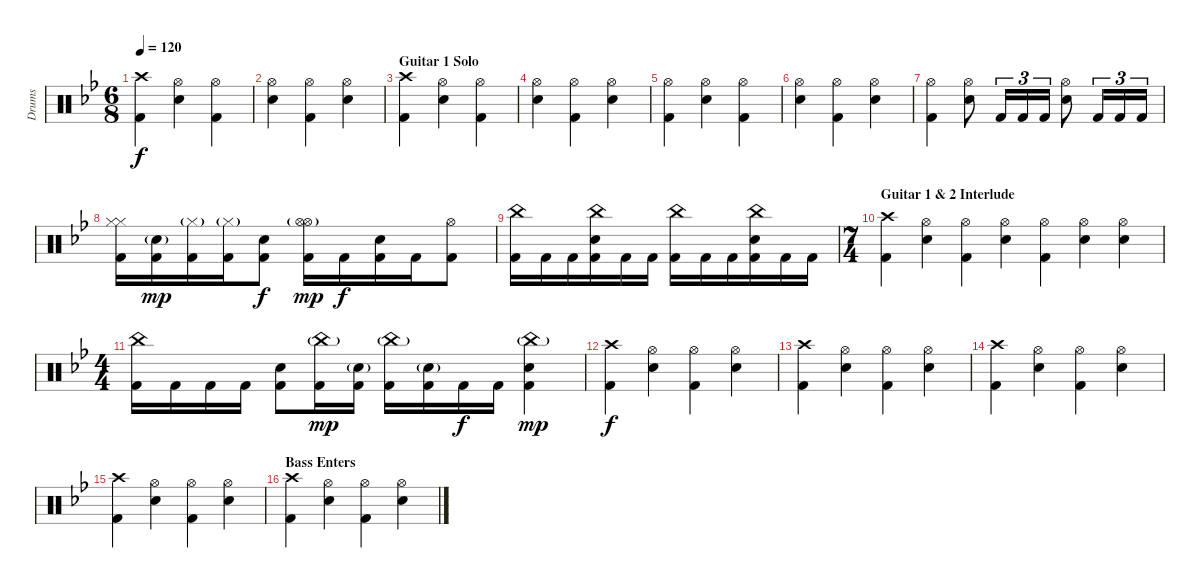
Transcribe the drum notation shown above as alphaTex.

\track ("Drums" "Drums") {instrument percussion}
\staff {score}
\articulation defaults
\ts (6 8)
\tempo 120
\clef neutral
\ks gminor
("Crash high (hit)" "Kick (hit) 2").4{dy f} ("Hi-Hat (open)" "Snare (hit) 2").4 ("Hi-Hat (open)" "Kick (hit) 2").4 |
("Hi-Hat (open)" "Snare (hit) 2").4 ("Hi-Hat (open)" "Kick (hit) 2").4 ("Hi-Hat (open)" "Snare (hit) 2").4 |
\section ("" "Guitar 1 Solo")
("Crash high (hit)" "Kick (hit) 2").4 ("Hi-Hat (open)" "Snare (hit) 2").4 ("Hi-Hat (open)" "Kick (hit) 2").4 |
("Hi-Hat (open)" "Snare (hit) 2").4 ("Hi-Hat (open)" "Kick (hit) 2").4 ("Hi-Hat (open)" "Snare (hit) 2").4 |
("Hi-Hat (open)" "Kick (hit) 2").4 ("Hi-Hat (open)" "Snare (hit) 2").4 ("Hi-Hat (open)" "Kick (hit) 2").4 |
("Hi-Hat (open)" "Snare (hit) 2").4 ("Hi-Hat (open)" "Kick (hit) 2").4 ("Hi-Hat (open)" "Snare (hit) 2").4 |
("Hi-Hat (open)" "Kick (hit) 2").4 ("Hi-Hat (open)" "Snare (hit) 2").8 "Kick (hit) 2".16{tu (3 2)} "Kick (hit) 2".16{tu (3 2)} "Kick (hit) 2".16{tu (3 2)} ("Hi-Hat (open)" "Snare (hit) 2").8 "Kick (hit) 2".16{tu (3 2)} "Kick (hit) 2".16{tu (3 2)} "Kick (hit) 2".16{tu (3 2)} |
("Hi-Hat (closed)" "Hi-Hat (closed)" "Kick (hit) 2").16 ("Snare (hit) 2"{g} "Kick (hit) 2").16{dy mp} ("Hi-Hat (closed)"{g} "Kick (hit) 2").16 ("Hi-Hat (closed)"{g} "Kick (hit) 2").16 ("Snare (hit) 2" "Kick (hit) 2").8{dy f} ("Hi-Hat (open)" "Hi-Hat (open)"{g} "Kick (hit) 2").16{dy mp} "Kick (hit) 2".16{dy f} ("Snare (hit) 2" "Kick (hit) 2").16 "Kick (hit) 2".16 ("Hi-Hat (open)" "Kick (hit) 2").8 |
("China (hit)" "Kick (hit) 2").16 "Kick (hit) 2".16 "Kick (hit) 2".16 ("China (hit)" "Snare (hit) 2" "Kick (hit) 2").16 "Kick (hit) 2".16 "Kick (hit) 2".16 ("China (hit)" "Kick (hit) 2").16 "Kick (hit) 2".16 "Kick (hit) 2".16 ("China (hit)" "Snare (hit) 2" "Kick (hit) 2").16 "Kick (hit) 2".16 "Kick (hit) 2".16 |
\ts (7 4)
\section ("" "Guitar 1 & 2 Interlude")
("Crash high (hit)" "Kick (hit) 2").4 ("Hi-Hat (open)" "Snare (hit) 2").4 ("Hi-Hat (open)" "Kick (hit) 2").4 ("Hi-Hat (open)" "Snare (hit) 2").4 ("Hi-Hat (open)" "Kick (hit) 2").4 ("Hi-Hat (open)" "Snare (hit) 2").4 ("Hi-Hat (open)" "Snare (hit) 2").4 |
\ts (4 4)
("China (hit)" "Kick (hit) 2").16 "Kick (hit) 2".16 "Kick (hit) 2".16 "Kick (hit) 2".16 ("Snare (hit) 2" "Kick (hit) 2").8 ("China (hit)"{g} "Kick (hit) 2").16{dy mp} ("Snare (hit) 2"{g} "Kick (hit) 2").16 ("China (hit)"{g} "Kick (hit) 2").16 ("Snare (hit) 2"{g} "Kick (hit) 2").16 "Kick (hit) 2".16{dy f} "Kick (hit) 2".16 ("China (hit)"{g} "Snare (hit) 2" "Kick (hit) 2").4{dy mp} |
("Crash high (hit)" "Kick (hit) 2").4{dy f} ("Hi-Hat (open)" "Snare (hit) 2").4 ("Hi-Hat (open)" "Kick (hit) 2").4 ("Hi-Hat (open)" "Snare (hit) 2").4 |
("Crash high (hit)" "Kick (hit) 2").4 ("Hi-Hat (open)" "Snare (hit) 2").4 ("Hi-Hat (open)" "Kick (hit) 2").4 ("Hi-Hat (open)" "Snare (hit) 2").4 |
("Crash high (hit)" "Kick (hit) 2").4 ("Hi-Hat (open)" "Snare (hit) 2").4 ("Hi-Hat (open)" "Kick (hit) 2").4 ("Hi-Hat (open)" "Snare (hit) 2").4 |
("Crash high (hit)" "Kick (hit) 2").4 ("Hi-Hat (open)" "Snare (hit) 2").4 ("Hi-Hat (open)" "Kick (hit) 2").4 ("Hi-Hat (open)" "Snare (hit) 2").4 |
\section ("" "Bass Enters")
("Crash high (hit)" "Kick (hit) 2").4 ("Hi-Hat (open)" "Snare (hit) 2").4 ("Hi-Hat (open)" "Kick (hit) 2").4 ("Hi-Hat (open)" "Snare (hit) 2").4
